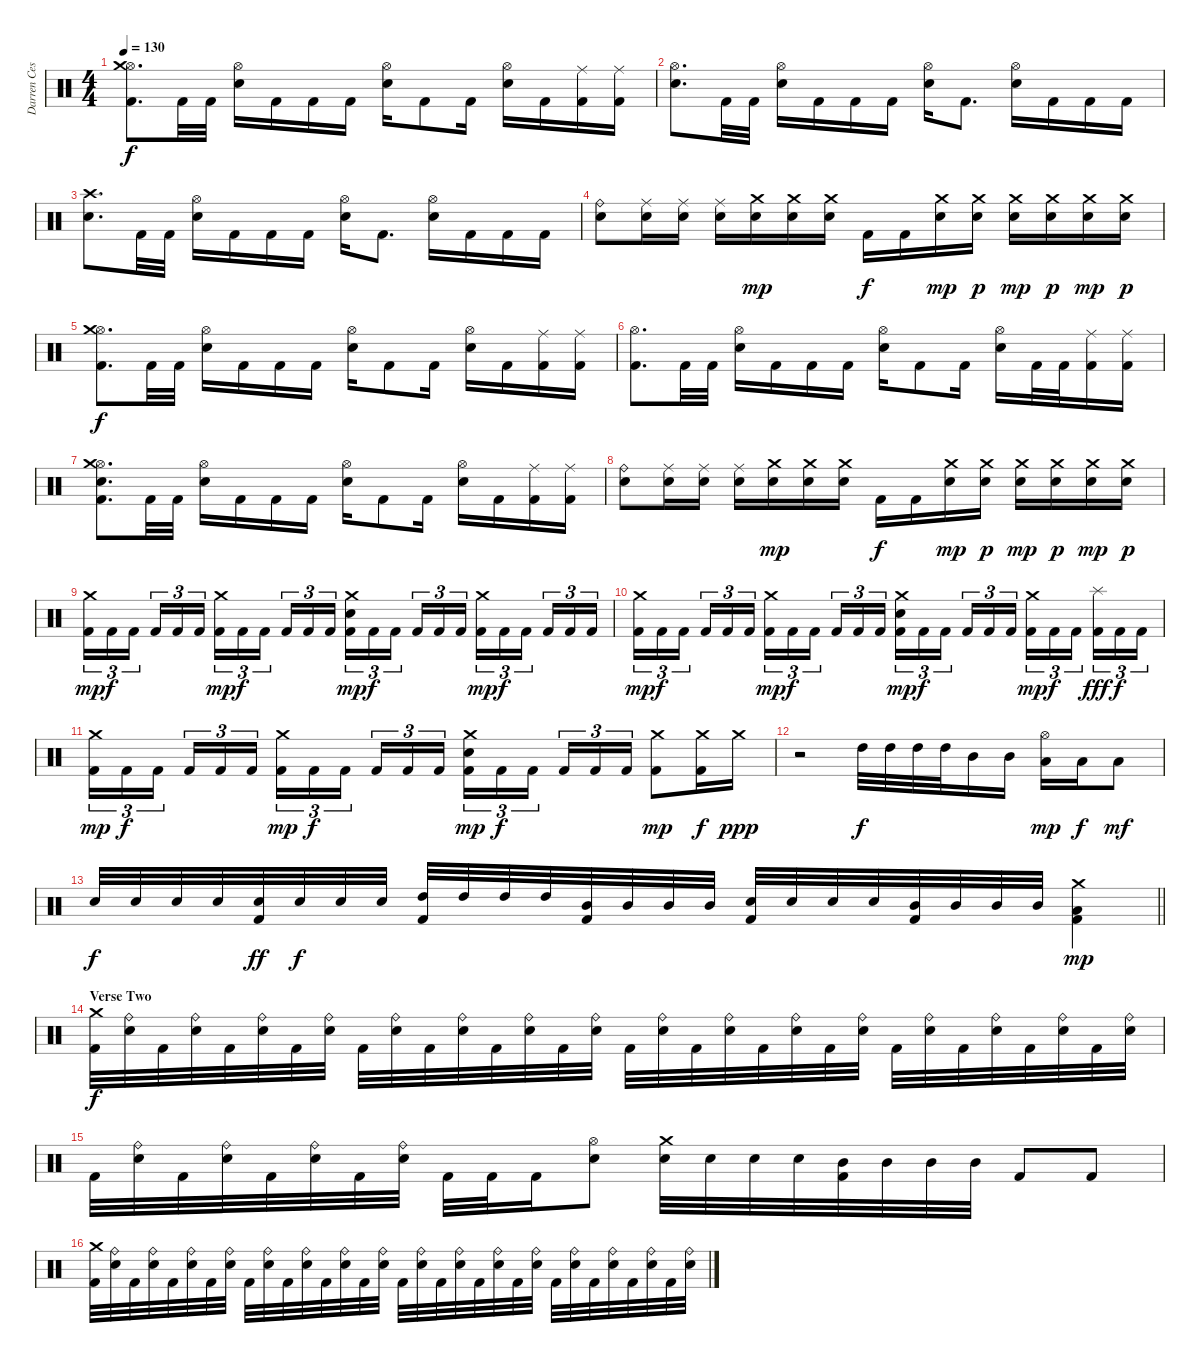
\track ("Darren Cesca" "Darren Ces") {instrument percussion}
\staff {score}
\articulation defaults
\ts (4 4)
\tempo 130
\clef neutral
\ks c
("Hi-Hat (open)" "Crash medium (hit)" "Kick (hit) 2").8{d dy f} "Kick (hit) 2".32 "Kick (hit) 2".32 ("Hi-Hat (open)" "Electric Snare (hit)").16 "Kick (hit) 2".16 "Kick (hit) 2".16 "Kick (hit) 2".16 ("Hi-Hat (open)" "Electric Snare (hit)").16 "Kick (hit) 2".8 "Kick (hit) 2".16 ("Hi-Hat (open)" "Electric Snare (hit)").16 "Kick (hit) 2".16 ("Ride (middle)" "Kick (hit) 2").16 ("Ride (middle)" "Kick (hit) 2").16 |
("Hi-Hat (open)" "Electric Snare (hit)").8{d} "Kick (hit) 2".32 "Kick (hit) 2".32 ("Hi-Hat (open)" "Electric Snare (hit)").16 "Kick (hit) 2".16 "Kick (hit) 2".16 "Kick (hit) 2".16 ("Hi-Hat (open)" "Electric Snare (hit)").16 "Kick (hit) 2".8{d} ("Hi-Hat (open)" "Electric Snare (hit)").16 "Kick (hit) 2".16 "Kick (hit) 2".16 "Kick (hit) 2".16 |
("Crash high (hit)" "Electric Snare (hit)").8{d} "Kick (hit) 2".32 "Kick (hit) 2".32 ("Hi-Hat (open)" "Electric Snare (hit)").16 "Kick (hit) 2".16 "Kick (hit) 2".16 "Kick (hit) 2".16 ("Hi-Hat (open)" "Electric Snare (hit)").16 "Kick (hit) 2".8{d} ("Hi-Hat (open)" "Electric Snare (hit)").16 "Kick (hit) 2".16 "Kick (hit) 2".16 "Kick (hit) 2".16 |
("Ride (bell)" "Electric Snare (hit)").8 ("Ride (middle)" "Electric Snare (hit)").16 ("Ride (middle)" "Electric Snare (hit)").16 ("Ride (middle)" "Electric Snare (hit)").16 ("Crash medium (hit)" "Electric Snare (hit)").16{dy mp} ("Crash medium (hit)" "Electric Snare (hit)").16 ("Crash medium (hit)" "Electric Snare (hit)").16 "Kick (hit) 2".16{dy f} "Kick (hit) 2".16 ("Crash medium (hit)" "Electric Snare (hit)").16{dy mp} ("Crash medium (hit)" "Electric Snare (hit)").16{dy p} ("Crash medium (hit)" "Electric Snare (hit)").16{dy mp} ("Crash medium (hit)" "Electric Snare (hit)").16{dy p} ("Crash medium (hit)" "Electric Snare (hit)").16{dy mp} ("Crash medium (hit)" "Electric Snare (hit)").16{dy p} |
("Hi-Hat (open)" "Crash medium (hit)" "Kick (hit) 2").8{d dy f} "Kick (hit) 2".32 "Kick (hit) 2".32 ("Hi-Hat (open)" "Electric Snare (hit)").16 "Kick (hit) 2".16 "Kick (hit) 2".16 "Kick (hit) 2".16 ("Hi-Hat (open)" "Electric Snare (hit)").16 "Kick (hit) 2".8 "Kick (hit) 2".16 ("Hi-Hat (open)" "Electric Snare (hit)").16 "Kick (hit) 2".16 ("Ride (middle)" "Kick (hit) 2").16 ("Ride (middle)" "Kick (hit) 2").16 |
("Hi-Hat (open)" "Kick (hit) 2").8{d} "Kick (hit) 2".32 "Kick (hit) 2".32 ("Hi-Hat (open)" "Electric Snare (hit)").16 "Kick (hit) 2".16 "Kick (hit) 2".16 "Kick (hit) 2".16 ("Hi-Hat (open)" "Electric Snare (hit)").16 "Kick (hit) 2".8 "Kick (hit) 2".16 ("Hi-Hat (open)" "Electric Snare (hit)").16 "Kick (hit) 2".32 "Kick (hit) 2".32 ("Ride (middle)" "Kick (hit) 2").16 ("Ride (middle)" "Kick (hit) 2").16 |
("Hi-Hat (open)" "Crash medium (hit)" "Electric Snare (hit)" "Kick (hit) 2").8{d} "Kick (hit) 2".32 "Kick (hit) 2".32 ("Hi-Hat (open)" "Electric Snare (hit)").16 "Kick (hit) 2".16 "Kick (hit) 2".16 "Kick (hit) 2".16 ("Hi-Hat (open)" "Electric Snare (hit)").16 "Kick (hit) 2".8 "Kick (hit) 2".16 ("Hi-Hat (open)" "Electric Snare (hit)").16 "Kick (hit) 2".16 ("Ride (middle)" "Kick (hit) 2").16 ("Ride (middle)" "Kick (hit) 2").16 |
("Ride (bell)" "Electric Snare (hit)").8 ("Ride (middle)" "Electric Snare (hit)").16 ("Ride (middle)" "Electric Snare (hit)").16 ("Ride (middle)" "Electric Snare (hit)").16 ("Crash medium (hit)" "Electric Snare (hit)").16{dy mp} ("Crash medium (hit)" "Electric Snare (hit)").16 ("Crash medium (hit)" "Electric Snare (hit)").16 "Kick (hit) 2".16{dy f} "Kick (hit) 2".16 ("Crash medium (hit)" "Electric Snare (hit)").16{dy mp} ("Crash medium (hit)" "Electric Snare (hit)").16{dy p} ("Crash medium (hit)" "Electric Snare (hit)").16{dy mp} ("Crash medium (hit)" "Electric Snare (hit)").16{dy p} ("Crash medium (hit)" "Electric Snare (hit)").16{dy mp} ("Crash medium (hit)" "Electric Snare (hit)").16{dy p} |
("Crash medium (hit)" "Kick (hit) 2").16{tu (3 2) dy mp} "Kick (hit) 2".16{tu (3 2) dy f} "Kick (hit) 2".16{tu (3 2) beam splitsecondary} "Kick (hit) 2".16{tu (3 2)} "Kick (hit) 2".16{tu (3 2)} "Kick (hit) 2".16{tu (3 2)} ("Crash medium (hit)" "Kick (hit) 2").16{tu (3 2) dy mp} "Kick (hit) 2".16{tu (3 2) dy f} "Kick (hit) 2".16{tu (3 2) beam splitsecondary} "Kick (hit) 2".16{tu (3 2)} "Kick (hit) 2".16{tu (3 2)} "Kick (hit) 2".16{tu (3 2)} ("Crash medium (hit)" "Electric Snare (hit)" "Kick (hit) 2").16{tu (3 2) dy mp} "Kick (hit) 2".16{tu (3 2) dy f} "Kick (hit) 2".16{tu (3 2) beam splitsecondary} "Kick (hit) 2".16{tu (3 2)} "Kick (hit) 2".16{tu (3 2)} "Kick (hit) 2".16{tu (3 2)} ("Crash medium (hit)" "Kick (hit) 2").16{tu (3 2) dy mp} "Kick (hit) 2".16{tu (3 2) dy f} "Kick (hit) 2".16{tu (3 2) beam splitsecondary} "Kick (hit) 2".16{tu (3 2)} "Kick (hit) 2".16{tu (3 2)} "Kick (hit) 2".16{tu (3 2)} |
("Crash medium (hit)" "Kick (hit) 2").16{tu (3 2) dy mp} "Kick (hit) 2".16{tu (3 2) dy f} "Kick (hit) 2".16{tu (3 2) beam splitsecondary} "Kick (hit) 2".16{tu (3 2)} "Kick (hit) 2".16{tu (3 2)} "Kick (hit) 2".16{tu (3 2)} ("Crash medium (hit)" "Kick (hit) 2").16{tu (3 2) dy mp} "Kick (hit) 2".16{tu (3 2) dy f} "Kick (hit) 2".16{tu (3 2) beam splitsecondary} "Kick (hit) 2".16{tu (3 2)} "Kick (hit) 2".16{tu (3 2)} "Kick (hit) 2".16{tu (3 2)} ("Crash medium (hit)" "Electric Snare (hit)" "Kick (hit) 2").16{tu (3 2) dy mp} "Kick (hit) 2".16{tu (3 2) dy f} "Kick (hit) 2".16{tu (3 2) beam splitsecondary} "Kick (hit) 2".16{tu (3 2)} "Kick (hit) 2".16{tu (3 2)} "Kick (hit) 2".16{tu (3 2)} ("Crash medium (hit)" "Kick (hit) 2").16{tu (3 2) dy mp} "Kick (hit) 2".16{tu (3 2) dy f} "Kick (hit) 2".16{tu (3 2) beam splitsecondary} ("Splash (hit)" "Kick (hit) 2").16{tu (3 2) dy fff} "Kick (hit) 2".16{tu (3 2) dy f} "Kick (hit) 2".16{tu (3 2)} |
("Crash medium (hit)" "Kick (hit) 2").16{tu (3 2) dy mp} "Kick (hit) 2".16{tu (3 2) dy f} "Kick (hit) 2".16{tu (3 2) beam splitsecondary} "Kick (hit) 2".16{tu (3 2)} "Kick (hit) 2".16{tu (3 2)} "Kick (hit) 2".16{tu (3 2)} ("Crash medium (hit)" "Kick (hit) 2").16{tu (3 2) dy mp} "Kick (hit) 2".16{tu (3 2) dy f} "Kick (hit) 2".16{tu (3 2) beam splitsecondary} "Kick (hit) 2".16{tu (3 2)} "Kick (hit) 2".16{tu (3 2)} "Kick (hit) 2".16{tu (3 2)} ("Crash medium (hit)" "Electric Snare (hit)" "Kick (hit) 2").16{tu (3 2) dy mp} "Kick (hit) 2".16{tu (3 2) dy f} "Kick (hit) 2".16{tu (3 2) beam splitsecondary} "Kick (hit) 2".16{tu (3 2)} "Kick (hit) 2".16{tu (3 2)} "Kick (hit) 2".16{tu (3 2)} ("Crash medium (hit)" "Kick (hit) 2").8{dy mp} ("Crash medium (hit)" "Kick (hit) 2").16{dy f} "Crash medium (hit)".16{dy ppp} |
r.2 "High Tom (hit)".32{dy f} "High Tom (hit)".32 "High Tom (hit)".32 "High Tom (hit)".32 "Mid Tom (hit)".16 "Mid Tom (hit)".16 ("Hi-Hat (open)" "Low Tom (hit)").16{dy mp} "Low Tom (hit)".16{dy f} "Low Tom (hit)".8{dy mf} |
\barLineRight lightlight "Electric Snare (hit)".32{dy f} "Electric Snare (hit)".32 "Electric Snare (hit)".32 "Electric Snare (hit)".32
("Electric Snare (hit)" "Kick (hit) 2").32{dy ff} "Electric Snare (hit)".32{dy f} "Electric Snare (hit)".32 "Electric Snare (hit)".32 ("High Tom (hit)" "Kick (hit) 2").32 "High Tom (hit)".32 "High Tom (hit)".32 "High Tom (hit)".32 ("Mid Tom (hit)" "Kick (hit) 2").32 "Mid Tom (hit)".32 "Mid Tom (hit)".32 "Mid Tom (hit)".32 ("Electric Snare (hit)" "Kick (hit) 2").32 "Electric Snare (hit)".32 "Electric Snare (hit)".32 "Electric Snare (hit)".32 ("Mid Tom (hit)" "Kick (hit) 2").32 "Mid Tom (hit)".32 "Mid Tom (hit)".32 "Mid Tom (hit)".32 ("Crash medium (hit)" "Low Tom (hit)" "Kick (hit) 2").4{dy mp} |
\section ("" "Verse Two")
("Crash medium (hit)" "Kick (hit) 2").32{dy f} ("Ride (bell)" "Electric Snare (hit)").32 "Kick (hit) 2".32 ("Ride (bell)" "Electric Snare (hit)").32 "Kick (hit) 2".32 ("Ride (bell)" "Electric Snare (hit)").32 "Kick (hit) 2".32 ("Ride (bell)" "Electric Snare (hit)").32 "Kick (hit) 2".32 ("Ride (bell)" "Electric Snare (hit)").32 "Kick (hit) 2".32 ("Ride (bell)" "Electric Snare (hit)").32 "Kick (hit) 2".32 ("Ride (bell)" "Electric Snare (hit)").32 "Kick (hit) 2".32 ("Ride (bell)" "Electric Snare (hit)").32 "Kick (hit) 2".32 ("Ride (bell)" "Electric Snare (hit)").32 "Kick (hit) 2".32 ("Ride (bell)" "Electric Snare (hit)").32 "Kick (hit) 2".32 ("Ride (bell)" "Electric Snare (hit)").32 "Kick (hit) 2".32 ("Ride (bell)" "Electric Snare (hit)").32 "Kick (hit) 2".32 ("Ride (bell)" "Electric Snare (hit)").32 "Kick (hit) 2".32 ("Ride (bell)" "Electric Snare (hit)").32 "Kick (hit) 2".32 ("Ride (bell)" "Electric Snare (hit)").32 "Kick (hit) 2".32 ("Ride (bell)" "Electric Snare (hit)").32 |
"Kick (hit) 2".32 ("Ride (bell)" "Electric Snare (hit)").32 "Kick (hit) 2".32 ("Ride (bell)" "Electric Snare (hit)").32 "Kick (hit) 2".32 ("Ride (bell)" "Electric Snare (hit)").32 "Kick (hit) 2".32 ("Ride (bell)" "Electric Snare (hit)").32 "Kick (hit) 2".32 "Kick (hit) 2".32 "Kick (hit) 2".16 ("Hi-Hat (open)" "Electric Snare (hit)").8 ("Crash medium (hit)" "Electric Snare (hit)").32 "Electric Snare (hit)".32 "Electric Snare (hit)".32 "Electric Snare (hit)".32 ("Mid Tom (hit)" "Kick (hit) 2").32 "Mid Tom (hit)".32 "Mid Tom (hit)".32 "Mid Tom (hit)".32 "Kick (hit) 2".8 "Kick (hit) 2".8 |
("Crash medium (hit)" "Kick (hit) 2").32 ("Ride (bell)" "Electric Snare (hit)").32 "Kick (hit) 2".32 ("Ride (bell)" "Electric Snare (hit)").32 "Kick (hit) 2".32 ("Ride (bell)" "Electric Snare (hit)").32 "Kick (hit) 2".32 ("Ride (bell)" "Electric Snare (hit)").32 "Kick (hit) 2".32 ("Ride (bell)" "Electric Snare (hit)").32 "Kick (hit) 2".32 ("Ride (bell)" "Electric Snare (hit)").32 "Kick (hit) 2".32 ("Ride (bell)" "Electric Snare (hit)").32 "Kick (hit) 2".32 ("Ride (bell)" "Electric Snare (hit)").32 "Kick (hit) 2".32 ("Ride (bell)" "Electric Snare (hit)").32 "Kick (hit) 2".32 ("Ride (bell)" "Electric Snare (hit)").32 "Kick (hit) 2".32 ("Ride (bell)" "Electric Snare (hit)").32 "Kick (hit) 2".32 ("Ride (bell)" "Electric Snare (hit)").32 "Kick (hit) 2".32 ("Ride (bell)" "Electric Snare (hit)").32 "Kick (hit) 2".32 ("Ride (bell)" "Electric Snare (hit)").32 "Kick (hit) 2".32 ("Ride (bell)" "Electric Snare (hit)").32 "Kick (hit) 2".32 ("Ride (bell)" "Electric Snare (hit)").32
